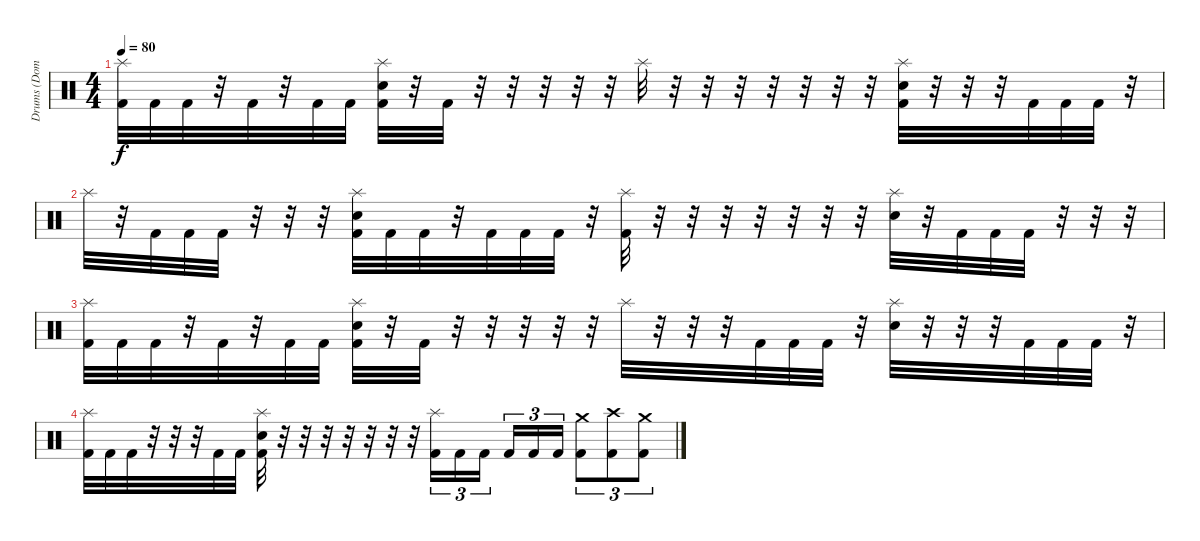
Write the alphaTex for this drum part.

\track ("Drums (Dominik)" "Drums (Dom") {instrument percussion}
\staff {score}
\articulation defaults
\ts (4 4)
\tempo 80
\clef neutral
\ks c
("Splash (hit)" "Kick (hit) 2").32{dy f} "Kick (hit) 2".32 "Kick (hit) 2".32 r.32 "Kick (hit) 2".32 r.32 "Kick (hit) 2".32 "Kick (hit) 2".32 ("Splash (hit)" "Electric Snare (hit)" "Kick (hit) 2").32 r.32 "Kick (hit) 2".32 r.32 r.32 r.32 r.32 r.32 "Splash (hit)".32 r.32 r.32 r.32 r.32 r.32 r.32 r.32 ("Splash (hit)" "Electric Snare (hit)" "Kick (hit) 2").32 r.32 r.32 r.32 "Kick (hit) 2".32 "Kick (hit) 2".32 "Kick (hit) 2".32 r.32 |
"Splash (hit)".32 r.32 "Kick (hit) 2".32 "Kick (hit) 2".32 "Kick (hit) 2".32 r.32 r.32 r.32 ("Splash (hit)" "Electric Snare (hit)" "Kick (hit) 2").32 "Kick (hit) 2".32 "Kick (hit) 2".32 r.32 "Kick (hit) 2".32 "Kick (hit) 2".32 "Kick (hit) 2".32 r.32 ("Splash (hit)" "Kick (hit) 2").32 r.32 r.32 r.32 r.32 r.32 r.32 r.32 ("Splash (hit)" "Electric Snare (hit)").32 r.32 "Kick (hit) 2".32 "Kick (hit) 2".32 "Kick (hit) 2".32 r.32 r.32 r.32 |
("Splash (hit)" "Kick (hit) 2").32 "Kick (hit) 2".32 "Kick (hit) 2".32 r.32 "Kick (hit) 2".32 r.32 "Kick (hit) 2".32 "Kick (hit) 2".32 ("Splash (hit)" "Electric Snare (hit)" "Kick (hit) 2").32 r.32 "Kick (hit) 2".32 r.32 r.32 r.32 r.32 r.32 "Splash (hit)".32 r.32 r.32 r.32 "Kick (hit) 2".32 "Kick (hit) 2".32 "Kick (hit) 2".32 r.32 ("Splash (hit)" "Electric Snare (hit)").32 r.32 r.32 r.32 "Kick (hit) 2".32 "Kick (hit) 2".32 "Kick (hit) 2".32 r.32 |
("Splash (hit)" "Kick (hit) 2").32 "Kick (hit) 2".32 "Kick (hit) 2".32 r.32 r.32 r.32 "Kick (hit) 2".32 "Kick (hit) 2".32 ("Splash (hit)" "Electric Snare (hit)" "Kick (hit) 2").32 r.32 r.32 r.32 r.32 r.32 r.32 r.32 ("Splash (hit)" "Kick (hit) 2").16{tu (3 2)} "Kick (hit) 2".16{tu (3 2)} "Kick (hit) 2".16{tu (3 2) beam splitsecondary} "Kick (hit) 2".16{tu (3 2)} "Kick (hit) 2".16{tu (3 2)} "Kick (hit) 2".16{tu (3 2)} ("Crash medium (hit)" "Kick (hit) 2").8{tu (3 2)} ("Crash high (hit)" "Kick (hit) 2").8{tu (3 2)} ("Crash medium (hit)" "Kick (hit) 2").8{tu (3 2)}
